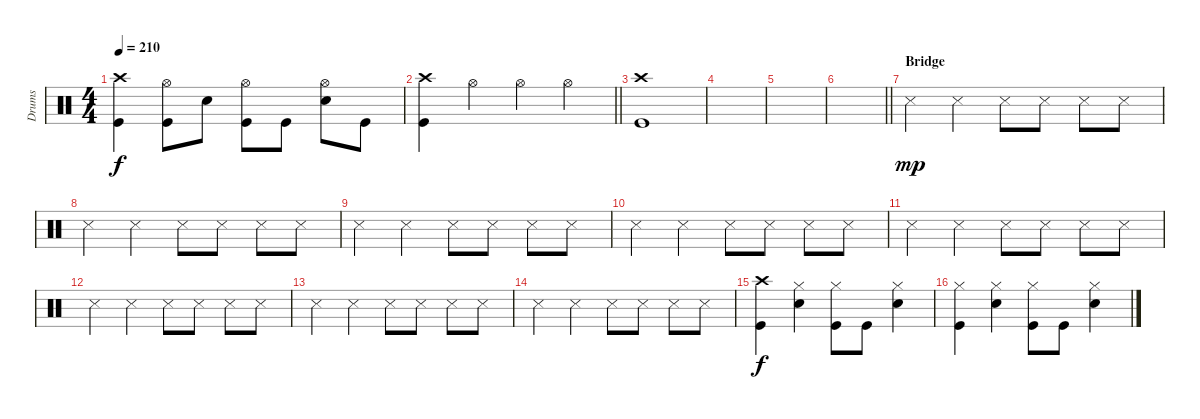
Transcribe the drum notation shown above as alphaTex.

\track ("Drums" "Drums") {instrument percussion}
\staff {score}
\articulation defaults
\ts (4 4)
\tempo 210
\clef neutral
\ks c
("Crash high (hit)" "Kick (hit)").4{dy f} ("Hi-Hat (open)" "Kick (hit)").8 "Snare (hit) 2".8 ("Hi-Hat (open)" "Kick (hit)").8 "Kick (hit)".8 ("Hi-Hat (open)" "Snare (hit) 2").8 "Kick (hit)".8 |
\barLineRight lightlight
("Crash high (hit)" "Kick (hit)").4 "Hi-Hat (open)".4 "Hi-Hat (open)".4 "Hi-Hat (open)".4 |
("Crash high (hit)" "Kick (hit)").1 |
|
|
\barLineRight lightlight
|
\section ("" "Bridge")
"Snare (side stick) 3".4{dy mp} "Snare (side stick) 3".4 "Snare (side stick) 3".8 "Snare (side stick) 3".8 "Snare (side stick) 3".8 "Snare (side stick) 3".8 |
"Snare (side stick) 3".4 "Snare (side stick) 3".4 "Snare (side stick) 3".8 "Snare (side stick) 3".8 "Snare (side stick) 3".8 "Snare (side stick) 3".8 |
"Snare (side stick) 3".4 "Snare (side stick) 3".4 "Snare (side stick) 3".8 "Snare (side stick) 3".8 "Snare (side stick) 3".8 "Snare (side stick) 3".8 |
"Snare (side stick) 3".4 "Snare (side stick) 3".4 "Snare (side stick) 3".8 "Snare (side stick) 3".8 "Snare (side stick) 3".8 "Snare (side stick) 3".8 |
"Snare (side stick) 3".4 "Snare (side stick) 3".4 "Snare (side stick) 3".8 "Snare (side stick) 3".8 "Snare (side stick) 3".8 "Snare (side stick) 3".8 |
"Snare (side stick) 3".4 "Snare (side stick) 3".4 "Snare (side stick) 3".8 "Snare (side stick) 3".8 "Snare (side stick) 3".8 "Snare (side stick) 3".8 |
"Snare (side stick) 3".4 "Snare (side stick) 3".4 "Snare (side stick) 3".8 "Snare (side stick) 3".8 "Snare (side stick) 3".8 "Snare (side stick) 3".8 |
"Snare (side stick) 3".4 "Snare (side stick) 3".4 "Snare (side stick) 3".8 "Snare (side stick) 3".8 "Snare (side stick) 3".8 "Snare (side stick) 3".8 |
("Crash high (hit)" "Kick (hit)").4{dy f} ("Hi-Hat (closed)" "Snare (hit) 2").4 ("Hi-Hat (closed)" "Kick (hit)").8 "Kick (hit)".8 ("Hi-Hat (closed)" "Snare (hit) 2").4 |
("Hi-Hat (closed)" "Kick (hit)").4 ("Hi-Hat (closed)" "Snare (hit) 2").4 ("Hi-Hat (closed)" "Kick (hit)").8 "Kick (hit)".8 ("Hi-Hat (closed)" "Snare (hit) 2").4
